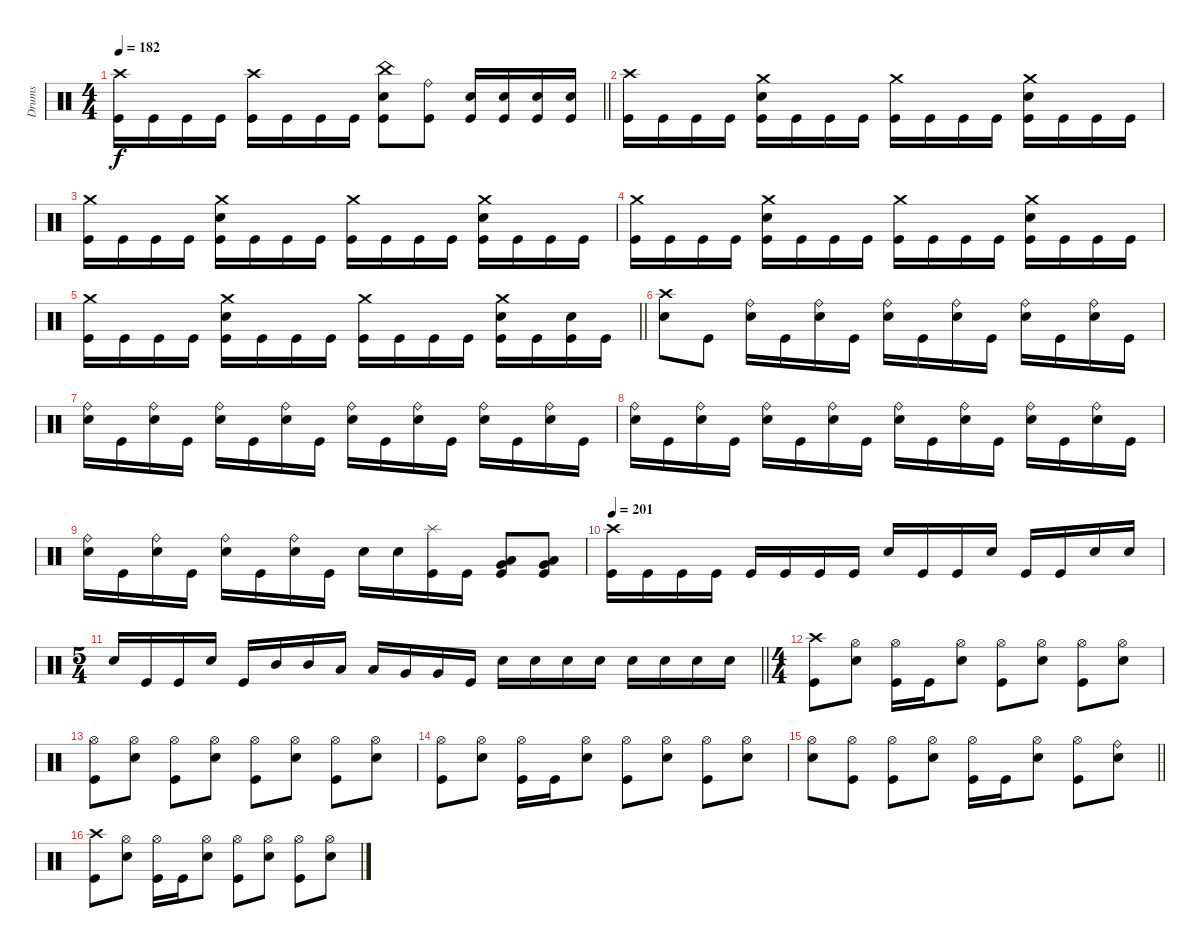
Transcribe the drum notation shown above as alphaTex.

\track ("Drums" "Drums") {instrument percussion}
\staff
\articulation defaults
\ts (4 4)
\tempo 182
\clef neutral
\barLineRight lightlight
\ks c
("Crash high (hit)" "Kick (hit)").16{dy f} "Kick (hit)".16 "Kick (hit)".16 "Kick (hit)".16 ("Crash high (hit)" "Kick (hit)").16 "Kick (hit)".16 "Kick (hit)".16 "Kick (hit)".16 ("China (hit)" "Electric Snare (hit)" "Kick (hit)").8 ("Ride (bell)" "Kick (hit)").8 ("Electric Snare (hit)" "Kick (hit)").16 ("Electric Snare (hit)" "Kick (hit)").16 ("Electric Snare (hit)" "Kick (hit)").16 ("Electric Snare (hit)" "Kick (hit)").16 |
\section ("" "")
("Crash high (hit)" "Kick (hit)").16 "Kick (hit)".16 "Kick (hit)".16 "Kick (hit)".16 ("Crash medium (hit)" "Electric Snare (hit)" "Kick (hit)").16 "Kick (hit)".16 "Kick (hit)".16 "Kick (hit)".16 ("Crash medium (hit)" "Kick (hit)").16 "Kick (hit)".16 "Kick (hit)".16 "Kick (hit)".16 ("Crash medium (hit)" "Electric Snare (hit)" "Kick (hit)").16 "Kick (hit)".16 "Kick (hit)".16 "Kick (hit)".16 |
("Crash medium (hit)" "Kick (hit)").16 "Kick (hit)".16 "Kick (hit)".16 "Kick (hit)".16 ("Crash medium (hit)" "Electric Snare (hit)" "Kick (hit)").16 "Kick (hit)".16 "Kick (hit)".16 "Kick (hit)".16 ("Crash medium (hit)" "Kick (hit)").16 "Kick (hit)".16 "Kick (hit)".16 "Kick (hit)".16 ("Crash medium (hit)" "Electric Snare (hit)" "Kick (hit)").16 "Kick (hit)".16 "Kick (hit)".16 "Kick (hit)".16 |
("Crash medium (hit)" "Kick (hit)").16 "Kick (hit)".16 "Kick (hit)".16 "Kick (hit)".16 ("Crash medium (hit)" "Electric Snare (hit)" "Kick (hit)").16 "Kick (hit)".16 "Kick (hit)".16 "Kick (hit)".16 ("Crash medium (hit)" "Kick (hit)").16 "Kick (hit)".16 "Kick (hit)".16 "Kick (hit)".16 ("Crash medium (hit)" "Electric Snare (hit)" "Kick (hit)").16 "Kick (hit)".16 "Kick (hit)".16 "Kick (hit)".16 |
\barLineRight lightlight
("Crash medium (hit)" "Kick (hit)").16 "Kick (hit)".16 "Kick (hit)".16 "Kick (hit)".16 ("Crash medium (hit)" "Electric Snare (hit)" "Kick (hit)").16 "Kick (hit)".16 "Kick (hit)".16 "Kick (hit)".16 ("Crash medium (hit)" "Kick (hit)").16 "Kick (hit)".16 "Kick (hit)".16 "Kick (hit)".16 ("Crash medium (hit)" "Electric Snare (hit)" "Kick (hit)").16 "Kick (hit)".16 ("Electric Snare (hit)" "Kick (hit)").16 "Kick (hit)".16 |
("Crash high (hit)" "Electric Snare (hit)").8 "Kick (hit)".8 ("Ride (bell)" "Electric Snare (hit)").16 "Kick (hit)".16 ("Ride (bell)" "Electric Snare (hit)").16 "Kick (hit)".16 ("Ride (bell)" "Electric Snare (hit)").16 "Kick (hit)".16 ("Ride (bell)" "Electric Snare (hit)").16 "Kick (hit)".16 ("Ride (bell)" "Electric Snare (hit)").16 "Kick (hit)".16 ("Ride (bell)" "Electric Snare (hit)").16 "Kick (hit)".16 |
("Ride (bell)" "Electric Snare (hit)").16 "Kick (hit)".16 ("Ride (bell)" "Electric Snare (hit)").16 "Kick (hit)".16 ("Ride (bell)" "Electric Snare (hit)").16 "Kick (hit)".16 ("Ride (bell)" "Electric Snare (hit)").16 "Kick (hit)".16 ("Ride (bell)" "Electric Snare (hit)").16 "Kick (hit)".16 ("Ride (bell)" "Electric Snare (hit)").16 "Kick (hit)".16 ("Ride (bell)" "Electric Snare (hit)").16 "Kick (hit)".16 ("Ride (bell)" "Electric Snare (hit)").16 "Kick (hit)".16 |
("Ride (bell)" "Electric Snare (hit)").16 "Kick (hit)".16 ("Ride (bell)" "Electric Snare (hit)").16 "Kick (hit)".16 ("Ride (bell)" "Electric Snare (hit)").16 "Kick (hit)".16 ("Ride (bell)" "Electric Snare (hit)").16 "Kick (hit)".16 ("Ride (bell)" "Electric Snare (hit)").16 "Kick (hit)".16 ("Ride (bell)" "Electric Snare (hit)").16 "Kick (hit)".16 ("Ride (bell)" "Electric Snare (hit)").16 "Kick (hit)".16 ("Ride (bell)" "Electric Snare (hit)").16 "Kick (hit)".16 |
("Ride (bell)" "Electric Snare (hit)").16 "Kick (hit)".16 ("Ride (bell)" "Electric Snare (hit)").16 "Kick (hit)".16 ("Ride (bell)" "Electric Snare (hit)").16 "Kick (hit)".16 ("Ride (bell)" "Electric Snare (hit)").16 "Kick (hit)".16 "Electric Snare (hit)".16 "Electric Snare (hit)".16 ("Splash (hit)" "Kick (hit)").16 "Kick (hit)".16 ("Very Low Tom (hit)" "Low Floor Tom (hit)" "Kick (hit)").8 ("Very Low Tom (hit)" "Low Floor Tom (hit)" "Kick (hit)").8 |
\tempo 201
("Crash high (hit)" "Kick (hit)").16 "Kick (hit)".16 "Kick (hit)".16 "Kick (hit)".16 "Kick (hit)".16 "Kick (hit)".16 "Kick (hit)".16 "Kick (hit)".16 "Electric Snare (hit)".16 "Kick (hit)".16 "Kick (hit)".16 "Electric Snare (hit)".16 "Kick (hit)".16 "Kick (hit)".16 "Electric Snare (hit)".16 "Electric Snare (hit)".16 |
\ts (5 4)
\barLineRight lightlight "Electric Snare (hit)".16 "Kick (hit)".16 "Kick (hit)".16 "Electric Snare (hit)".16 "Kick (hit)".16 "Mid Tom (hit)".16 "Mid Tom (hit)".16 "Low Tom (hit)".16 "Low Tom (hit)".16 "Very Low Tom (hit)".16 "Very Low Tom (hit)".16 "Kick (hit)".16 "Electric Snare (hit)".16{volume 2} "Electric Snare (hit)".16{volume 13} "Electric Snare (hit)".16 "Electric Snare (hit)".16 "Electric Snare (hit)".16 "Electric Snare (hit)".16 "Electric Snare (hit)".16 "Electric Snare (hit)".16
|
\ts (4 4)
\section ("" "")
("Crash high (hit)" "Kick (hit)").8 ("Hi-Hat (open)" "Electric Snare (hit)").8 ("Hi-Hat (open)" "Kick (hit)").16 "Kick (hit)".16 ("Hi-Hat (open)" "Electric Snare (hit)").8 ("Hi-Hat (open)" "Kick (hit)").8 ("Hi-Hat (open)" "Electric Snare (hit)").8 ("Hi-Hat (open)" "Kick (hit)").8 ("Hi-Hat (open)" "Electric Snare (hit)").8 |
("Hi-Hat (open)" "Kick (hit)").8 ("Hi-Hat (open)" "Electric Snare (hit)").8 ("Hi-Hat (open)" "Kick (hit)").8 ("Hi-Hat (open)" "Electric Snare (hit)").8 ("Hi-Hat (open)" "Kick (hit)").8 ("Hi-Hat (open)" "Electric Snare (hit)").8 ("Hi-Hat (open)" "Kick (hit)").8 ("Hi-Hat (open)" "Electric Snare (hit)").8 |
("Hi-Hat (open)" "Kick (hit)").8 ("Hi-Hat (open)" "Electric Snare (hit)").8 ("Hi-Hat (open)" "Kick (hit)").16 "Kick (hit)".16 ("Hi-Hat (open)" "Electric Snare (hit)").8 ("Hi-Hat (open)" "Kick (hit)").8 ("Hi-Hat (open)" "Electric Snare (hit)").8 ("Hi-Hat (open)" "Kick (hit)").8 ("Hi-Hat (open)" "Electric Snare (hit)").8 |
\barLineRight lightlight
("Hi-Hat (open)" "Electric Snare (hit)").8 ("Hi-Hat (open)" "Kick (hit)").8 ("Hi-Hat (open)" "Kick (hit)").8 ("Hi-Hat (open)" "Electric Snare (hit)").8 ("Hi-Hat (open)" "Kick (hit)").16 "Kick (hit)".16 ("Hi-Hat (open)" "Electric Snare (hit)").8 ("Hi-Hat (open)" "Kick (hit)").8 ("Ride (bell)" "Electric Snare (hit)").8 |
("Crash high (hit)" "Kick (hit)").8 ("Hi-Hat (open)" "Electric Snare (hit)").8 ("Hi-Hat (open)" "Kick (hit)").16 "Kick (hit)".16 ("Hi-Hat (open)" "Electric Snare (hit)").8 ("Hi-Hat (open)" "Kick (hit)").8 ("Hi-Hat (open)" "Electric Snare (hit)").8 ("Hi-Hat (open)" "Kick (hit)").8 ("Hi-Hat (open)" "Electric Snare (hit)").8
